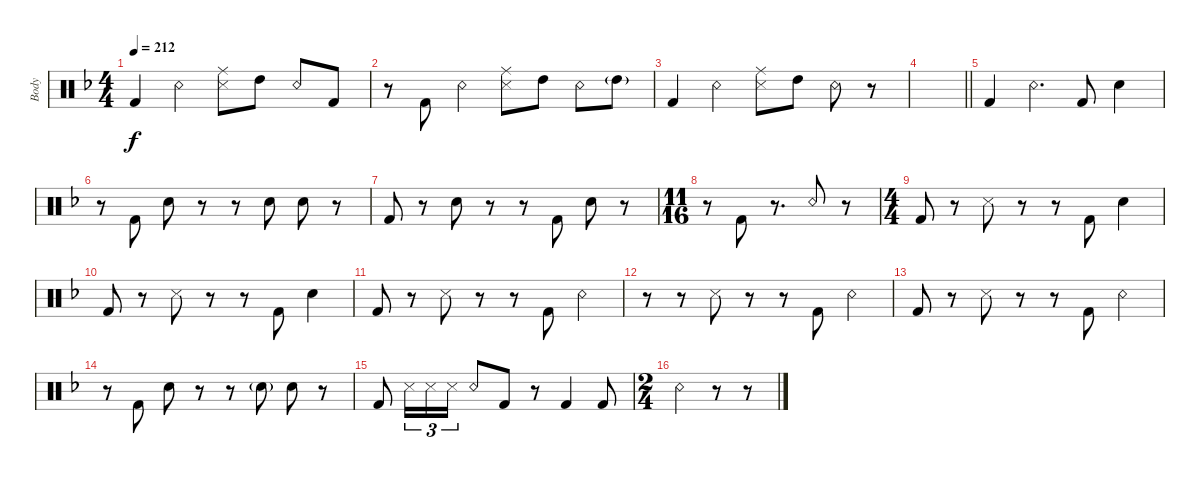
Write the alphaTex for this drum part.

\defaultSystemsLayout 2
\bracketExtendMode groupsimilarinstruments
\otherSystemsTrackNameOrientation horizontal
\track ("Body" "Body") {instrument percussion}
\staff {score}
\articulation defaults
\ts (4 4)
\scale
1.04804
\tempo 212
\accidentals auto
\clef neutral
\ottava regular
\simile none
\scale
0.333333
\ks dminor "Kick (hit) 2"{acc forcenatural}.4{dy f beam Up} "Snare (rim shot)"{acc forcenatural}.4{beam Down}
("Snare (side stick) 3"{acc forcenatural} "Ride (middle)"{acc forcenatural}).8{beam Down} "High Tom (hit)"{acc forcenatural}.8{beam Down} "Snare (rim shot)"{acc forcenatural}.8{beam Up} "Kick (hit) 2"{acc forcenatural}.8{beam Up} |
\scale
0.951961
\scale
0.333333 r.8{beam Down} "Kick (hit) 2"{acc forcenatural}.8{beam Up} "Snare (rim shot)"{acc forcenatural}.4{beam Down} ("Snare (side stick) 3"{acc forcenatural} "Ride (middle)"{acc forcenatural}).8{beam Down} "High Tom (hit)"{acc forcenatural}.8{beam Down} "Snare (rim shot)"{acc forcenatural}.8{beam Down} "High Tom (hit)"{g acc forcenatural}.8{beam Down} |
\scale
1.04954
\scale
0.333333 "Kick (hit) 2"{acc forcenatural}.4{beam Up} "Snare (rim shot)"{acc forcenatural}.4{beam Down} ("Snare (side stick) 3"{acc forcenatural} "Ride (middle)"{acc forcenatural}).8{beam Down} "High Tom (hit)"{acc forcenatural}.8{beam Down} "Snare (rim shot)"{acc forcenatural}.8{beam Down} r.8{beam Down} |
\scale
0.950455
\scale
0.333333
\barLineRight lightlight
|
\scale
1.04804
\scale
0.333333 "Kick (hit) 2"{acc forcenatural}.4{beam Up} "Snare (rim shot)"{acc forcenatural}.4{d beam Down} "Kick (hit) 2"{acc forcenatural}.8{beam Up} "Snare (hit) 2"{acc forcenatural}.4{beam Down} |
\scale
0.951961
\scale
0.333333 r.8{beam Down} "Kick (hit) 2"{acc forcenatural}.8{beam Up} "Snare (hit) 2"{acc forcenatural}.8{beam Down} r.8{beam Down} r.8{beam Down} "Snare (hit) 2"{acc forcenatural}.8{beam Down} "Snare (hit) 2"{acc forcenatural}.8{beam Down} r.8{beam Down} |
\scale
1.02005
\scale
0.333333 "Kick (hit) 2"{acc forcenatural}.8{beam Up} r.8{beam Up} "Snare (hit) 2"{acc forcenatural}.8{beam Down} r.8{beam Down} r.8{beam Down} "Kick (hit) 2"{acc forcenatural}.8{beam Up} "Snare (hit) 2"{acc forcenatural}.8{beam Down} r.8{beam Down} |
\ts (11 16)
\scale
0.97995
\scale
0.333333 r.8{beam Down} "Kick (hit) 2"{acc forcenatural}.8{beam Up} r.8{d beam Up} "Snare (rim shot)"{acc forcenatural}.8{beam Down} r.8{beam Down} |
\ts (4 4)
\scale
1.07077
\scale
0.333333 "Kick (hit) 2"{acc forcenatural}.8{beam Up} r.8{beam Up} "Snare (side stick) 3"{acc forcenatural}.8{beam Down} r.8{beam Down} r.8{beam Down} "Kick (hit) 2"{acc forcenatural}.8{beam Up} "Snare (hit) 2"{acc forcenatural}.4{beam Down} |
\scale
0.929234
\scale
0.333333 "Kick (hit) 2"{acc forcenatural}.8{beam Up} r.8{beam Up} "Snare (side stick) 3"{acc forcenatural}.8{beam Down} r.8{beam Down} r.8{beam Down} "Kick (hit) 2"{acc forcenatural}.8{beam Up} "Snare (hit) 2"{acc forcenatural}.4{beam Down} |
\scale
1.04804
\scale
0.333333 "Kick (hit) 2"{acc forcenatural}.8{beam Up} r.8{beam Up} "Snare (side stick) 3"{acc forcenatural}.8{beam Down} r.8{beam Down} r.8{beam Down} "Kick (hit) 2"{acc forcenatural}.8{beam Up} "Snare (rim shot)"{acc forcenatural}.4{beam Down} |
\scale
0.951961
\scale
0.333333 r.8{beam Down} r.8{beam Down} "Snare (side stick) 3"{acc forcenatural}.8{beam Down} r.8{beam Down} r.8{beam Down} "Kick (hit) 2"{acc forcenatural}.8{beam Up} "Snare (rim shot)"{acc forcenatural}.4{beam Down} |
\scale
1.04804
\scale
0.333333 "Kick (hit) 2"{acc forcenatural}.8{beam Up} r.8{beam Up} "Snare (side stick) 3"{acc forcenatural}.8{beam Down} r.8{beam Down} r.8{beam Down} "Kick (hit) 2"{acc forcenatural}.8{beam Up} "Snare (rim shot)"{acc forcenatural}.4{beam Down} |
\scale
0.951961
\scale
0.333333 r.8{beam Down} "Kick (hit) 2"{acc forcenatural}.8{beam Up} "Snare (hit) 2"{acc forcenatural}.8{beam Down} r.8{beam Down} r.8{beam Down} "Snare (hit) 2"{g acc forcenatural}.8{beam Down} "Snare (hit) 2"{acc forcenatural}.8{beam Down} r.8{beam Down} |
\scale
1.02841 "Kick (hit) 2"{acc forcenatural}.8{beam Up} "Snare (side stick) 3"{acc forcenatural}.16{tu (3 2) beam Down} "Snare (side stick) 3"{acc forcenatural}.16{tu (3 2) beam Down} "Snare (side stick) 3"{acc forcenatural}.16{tu (3 2) beam Down} "Snare (rim shot)"{acc forcenatural}.8{beam Up} "Kick (hit) 2"{acc forcenatural}.8{beam Up} r.8{beam Up} "Kick (hit) 2"{acc forcenatural}.4{beam Up} "Kick (hit) 2"{acc forcenatural}.8{beam Up} |
\ts (2 4)
\scale
0.971595 "Snare (rim shot)"{acc forcenatural}.4{beam Down} r.8{beam Down} r.8{beam Down}
